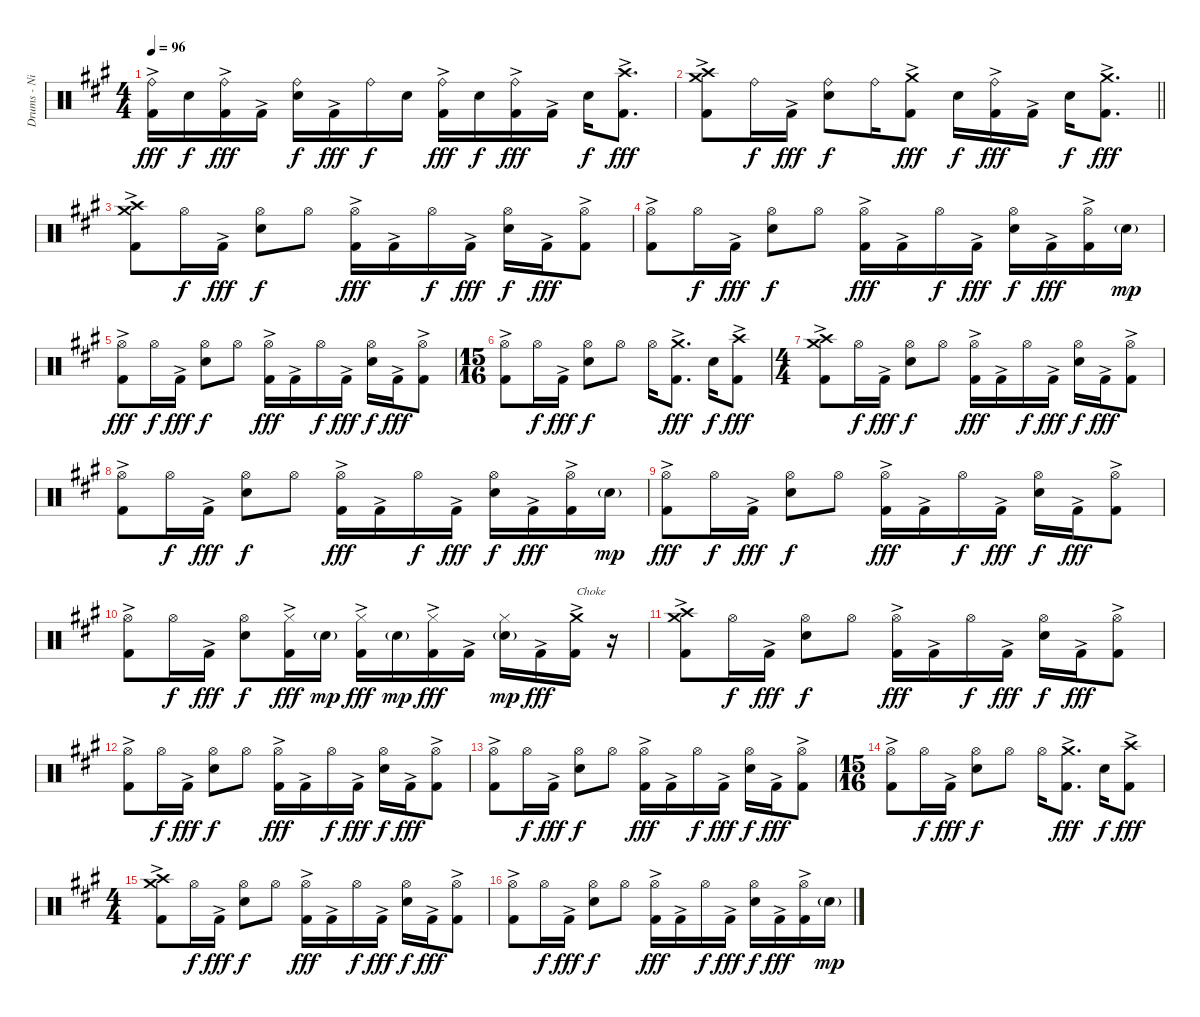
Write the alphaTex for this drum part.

\track ("Drums - Nick Menza" "Drums - Ni") {instrument percussion}
\staff {score}
\articulation defaults
\ts (4 4)
\tempo 96
\clef neutral
\ks f#minor
("Ride (bell)" "Kick (hit) 2"{ac}).16{dy fff} "Snare (hit) 2".16{dy f} ("Ride (bell)" "Kick (hit) 2"{ac}).16{dy fff} "Kick (hit) 2"{ac}.16 ("Ride (bell)" "Snare (hit) 2").16{dy f} "Kick (hit) 2"{ac}.16{dy fff} "Ride (bell)".16{dy f} "Snare (hit) 2".16 ("Ride (bell)" "Kick (hit) 2"{ac}).16{dy fff} "Snare (hit) 2".16{dy f} ("Ride (bell)" "Kick (hit) 2"{ac}).16{dy fff} "Kick (hit) 2"{ac}.16 "Snare (hit) 2".16{dy f} ("Crash high (hit)" "Kick (hit) 2"{ac}).8{d dy fff} |
\barLineRight lightlight
("Crash high (hit)" "Crash medium (hit)" "Kick (hit) 2"{ac}).8 "Ride (bell)".16{dy f} "Kick (hit) 2"{ac}.16{dy fff} ("Ride (bell)" "Snare (hit) 2").8{dy f} "Ride (bell)".16 ("Crash medium (hit)" "Kick (hit) 2"{ac}).8{dy fff} "Snare (hit) 2".16{dy f} ("Ride (bell)" "Kick (hit) 2"{ac}).16{dy fff} "Kick (hit) 2"{ac}.16 "Snare (hit) 2".16{dy f} ("Crash medium (hit)" "Kick (hit) 2"{ac}).8{d dy fff} |
("Crash high (hit)" "Crash medium (hit)" "Kick (hit) 2"{ac}).8 "Hi-Hat (open)".16{dy f} "Kick (hit) 2"{ac}.16{dy fff} ("Hi-Hat (open)" "Snare (hit) 2").8{dy f} "Hi-Hat (open)".8 ("Hi-Hat (open)" "Kick (hit) 2"{ac}).16{dy fff} "Kick (hit) 2"{ac}.16 "Hi-Hat (open)".16{dy f} "Kick (hit) 2"{ac}.16{dy fff} ("Hi-Hat (open)" "Snare (hit) 2").16{dy f} "Kick (hit) 2"{ac}.16{dy fff} ("Hi-Hat (open)" "Kick (hit) 2"{ac}).8 |
("Hi-Hat (open)" "Kick (hit) 2"{ac}).8 "Hi-Hat (open)".16{dy f} "Kick (hit) 2"{ac}.16{dy fff} ("Hi-Hat (open)" "Snare (hit) 2").8{dy f} "Hi-Hat (open)".8 ("Hi-Hat (open)" "Kick (hit) 2"{ac}).16{dy fff} "Kick (hit) 2"{ac}.16 "Hi-Hat (open)".16{dy f} "Kick (hit) 2"{ac}.16{dy fff} ("Hi-Hat (open)" "Snare (hit) 2").16{dy f} "Kick (hit) 2"{ac}.16{dy fff} ("Hi-Hat (open)" "Kick (hit) 2"{ac}).16 "Snare (hit) 2"{g}.16{dy mp} |
("Hi-Hat (open)" "Kick (hit) 2"{ac}).8{dy fff} "Hi-Hat (open)".16{dy f} "Kick (hit) 2"{ac}.16{dy fff} ("Hi-Hat (open)" "Snare (hit) 2").8{dy f} "Hi-Hat (open)".8 ("Hi-Hat (open)" "Kick (hit) 2"{ac}).16{dy fff} "Kick (hit) 2"{ac}.16 "Hi-Hat (open)".16{dy f} "Kick (hit) 2"{ac}.16{dy fff} ("Hi-Hat (open)" "Snare (hit) 2").16{dy f} "Kick (hit) 2"{ac}.16{dy fff} ("Hi-Hat (open)" "Kick (hit) 2"{ac}).8 |
\ts (15 16)
("Hi-Hat (open)" "Kick (hit) 2"{ac}).8 "Hi-Hat (open)".16{dy f} "Kick (hit) 2"{ac}.16{dy fff} ("Hi-Hat (open)" "Snare (hit) 2").8{dy f} "Hi-Hat (open)".8 "Hi-Hat (open)".16 ("Crash medium (hit)" "Kick (hit) 2"{ac}).8{d dy fff} "Snare (hit) 2".16{dy f} ("Crash high (hit)" "Kick (hit) 2"{ac}).8{dy fff} |
\ts (4 4)
("Crash high (hit)" "Crash medium (hit)" "Kick (hit) 2"{ac}).8 "Hi-Hat (open)".16{dy f} "Kick (hit) 2"{ac}.16{dy fff} ("Hi-Hat (open)" "Snare (hit) 2").8{dy f} "Hi-Hat (open)".8 ("Hi-Hat (open)" "Kick (hit) 2"{ac}).16{dy fff} "Kick (hit) 2"{ac}.16 "Hi-Hat (open)".16{dy f} "Kick (hit) 2"{ac}.16{dy fff} ("Hi-Hat (open)" "Snare (hit) 2").16{dy f} "Kick (hit) 2"{ac}.16{dy fff} ("Hi-Hat (open)" "Kick (hit) 2"{ac}).8 |
("Hi-Hat (open)" "Kick (hit) 2"{ac}).8 "Hi-Hat (open)".16{dy f} "Kick (hit) 2"{ac}.16{dy fff} ("Hi-Hat (open)" "Snare (hit) 2").8{dy f} "Hi-Hat (open)".8 ("Hi-Hat (open)" "Kick (hit) 2"{ac}).16{dy fff} "Kick (hit) 2"{ac}.16 "Hi-Hat (open)".16{dy f} "Kick (hit) 2"{ac}.16{dy fff} ("Hi-Hat (open)" "Snare (hit) 2").16{dy f} "Kick (hit) 2"{ac}.16{dy fff} ("Hi-Hat (open)" "Kick (hit) 2"{ac}).16 "Snare (hit) 2"{g}.16{dy mp} |
("Hi-Hat (open)" "Kick (hit) 2"{ac}).8{dy fff} "Hi-Hat (open)".16{dy f} "Kick (hit) 2"{ac}.16{dy fff} ("Hi-Hat (open)" "Snare (hit) 2").8{dy f} "Hi-Hat (open)".8 ("Hi-Hat (open)" "Kick (hit) 2"{ac}).16{dy fff} "Kick (hit) 2"{ac}.16 "Hi-Hat (open)".16{dy f} "Kick (hit) 2"{ac}.16{dy fff} ("Hi-Hat (open)" "Snare (hit) 2").16{dy f} "Kick (hit) 2"{ac}.16{dy fff} ("Hi-Hat (open)" "Kick (hit) 2"{ac}).8 |
("Hi-Hat (open)" "Kick (hit) 2"{ac}).8 "Hi-Hat (open)".16{dy f} "Kick (hit) 2"{ac}.16{dy fff} ("Hi-Hat (open)" "Snare (hit) 2").8{dy f} ("Hi-Hat (closed)" "Kick (hit) 2"{ac}).16{dy fff} "Snare (hit) 2"{g}.16{dy mp} ("Hi-Hat (closed)" "Kick (hit) 2"{ac}).16{dy fff} "Snare (hit) 2"{g}.16{dy mp} ("Hi-Hat (closed)" "Kick (hit) 2"{ac}).16{dy fff} "Kick (hit) 2"{ac}.16 ("Hi-Hat (closed)" "Snare (hit) 2"{g}).16{dy mp} "Kick (hit) 2"{ac}.16{dy fff} ("Crash medium (hit)" "Kick (hit) 2"{ac}).16{txt "Choke"} r.16 |
("Crash high (hit)" "Crash medium (hit)" "Kick (hit) 2"{ac}).8 "Hi-Hat (open)".16{dy f} "Kick (hit) 2"{ac}.16{dy fff} ("Hi-Hat (open)" "Snare (hit) 2").8{dy f} "Hi-Hat (open)".8 ("Hi-Hat (open)" "Kick (hit) 2"{ac}).16{dy fff} "Kick (hit) 2"{ac}.16 "Hi-Hat (open)".16{dy f} "Kick (hit) 2"{ac}.16{dy fff} ("Hi-Hat (open)" "Snare (hit) 2").16{dy f} "Kick (hit) 2"{ac}.16{dy fff} ("Hi-Hat (open)" "Kick (hit) 2"{ac}).8 |
("Hi-Hat (open)" "Kick (hit) 2"{ac}).8 "Hi-Hat (open)".16{dy f} "Kick (hit) 2"{ac}.16{dy fff} ("Hi-Hat (open)" "Snare (hit) 2").8{dy f} "Hi-Hat (open)".8 ("Hi-Hat (open)" "Kick (hit) 2"{ac}).16{dy fff} "Kick (hit) 2"{ac}.16 "Hi-Hat (open)".16{dy f} "Kick (hit) 2"{ac}.16{dy fff} ("Hi-Hat (open)" "Snare (hit) 2").16{dy f} "Kick (hit) 2"{ac}.16{dy fff} ("Hi-Hat (open)" "Kick (hit) 2"{ac}).8 |
("Hi-Hat (open)" "Kick (hit) 2"{ac}).8 "Hi-Hat (open)".16{dy f} "Kick (hit) 2"{ac}.16{dy fff} ("Hi-Hat (open)" "Snare (hit) 2").8{dy f} "Hi-Hat (open)".8 ("Hi-Hat (open)" "Kick (hit) 2"{ac}).16{dy fff} "Kick (hit) 2"{ac}.16 "Hi-Hat (open)".16{dy f} "Kick (hit) 2"{ac}.16{dy fff} ("Hi-Hat (open)" "Snare (hit) 2").16{dy f} "Kick (hit) 2"{ac}.16{dy fff} ("Hi-Hat (open)" "Kick (hit) 2"{ac}).8 |
\ts (15 16)
("Hi-Hat (open)" "Kick (hit) 2"{ac}).8 "Hi-Hat (open)".16{dy f} "Kick (hit) 2"{ac}.16{dy fff} ("Hi-Hat (open)" "Snare (hit) 2").8{dy f} "Hi-Hat (open)".8 "Hi-Hat (open)".16 ("Crash medium (hit)" "Kick (hit) 2"{ac}).8{d dy fff} "Snare (hit) 2".16{dy f} ("Crash high (hit)" "Kick (hit) 2"{ac}).8{dy fff} |
\ts (4 4)
("Crash high (hit)" "Crash medium (hit)" "Kick (hit) 2"{ac}).8 "Hi-Hat (open)".16{dy f} "Kick (hit) 2"{ac}.16{dy fff} ("Hi-Hat (open)" "Snare (hit) 2").8{dy f} "Hi-Hat (open)".8 ("Hi-Hat (open)" "Kick (hit) 2"{ac}).16{dy fff} "Kick (hit) 2"{ac}.16 "Hi-Hat (open)".16{dy f} "Kick (hit) 2"{ac}.16{dy fff} ("Hi-Hat (open)" "Snare (hit) 2").16{dy f} "Kick (hit) 2"{ac}.16{dy fff} ("Hi-Hat (open)" "Kick (hit) 2"{ac}).8 |
("Hi-Hat (open)" "Kick (hit) 2"{ac}).8 "Hi-Hat (open)".16{dy f} "Kick (hit) 2"{ac}.16{dy fff} ("Hi-Hat (open)" "Snare (hit) 2").8{dy f} "Hi-Hat (open)".8 ("Hi-Hat (open)" "Kick (hit) 2"{ac}).16{dy fff} "Kick (hit) 2"{ac}.16 "Hi-Hat (open)".16{dy f} "Kick (hit) 2"{ac}.16{dy fff} ("Hi-Hat (open)" "Snare (hit) 2").16{dy f} "Kick (hit) 2"{ac}.16{dy fff} ("Hi-Hat (open)" "Kick (hit) 2"{ac}).16 "Snare (hit) 2"{g}.16{dy mp}
